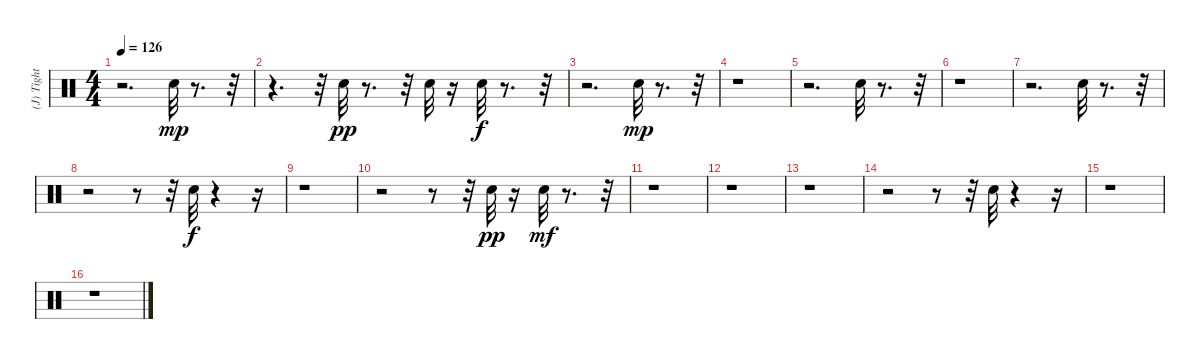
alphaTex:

\track ("(J) Tight Snare" "(J) Tight ") {instrument percussion}
\staff {score}
\articulation defaults
\ts (4 4)
\tempo 126
\clef neutral
\ks c
r.2{d dy mp} "Electric Snare (hit)".32 r.8{d} r.32 |
r.4{d} r.32 "Electric Snare (hit)".32{dy pp} r.8{d} r.32 "Electric Snare (hit)".32 r.16 "Electric Snare (hit)".32{dy f} r.8{d} r.32 |
r.2{d} "Electric Snare (hit)".32{dy mp} r.8{d} r.32 |
r.1 |
r.2{d} "Electric Snare (hit)".32 r.8{d} r.32 |
r.1 |
r.2{d} "Electric Snare (hit)".32 r.8{d} r.32 |
r.2 r.8 r.32 "Electric Snare (hit)".32{dy f} r.4 r.16 |
r.1 |
r.2 r.8 r.32 "Electric Snare (hit)".32{dy pp} r.16 "Electric Snare (hit)".32{dy mf} r.8{d} r.32 |
r.1 |
r.1 |
r.1 |
r.2 r.8 r.32 "Electric Snare (hit)".32 r.4 r.16 |
r.1 |
r.1
